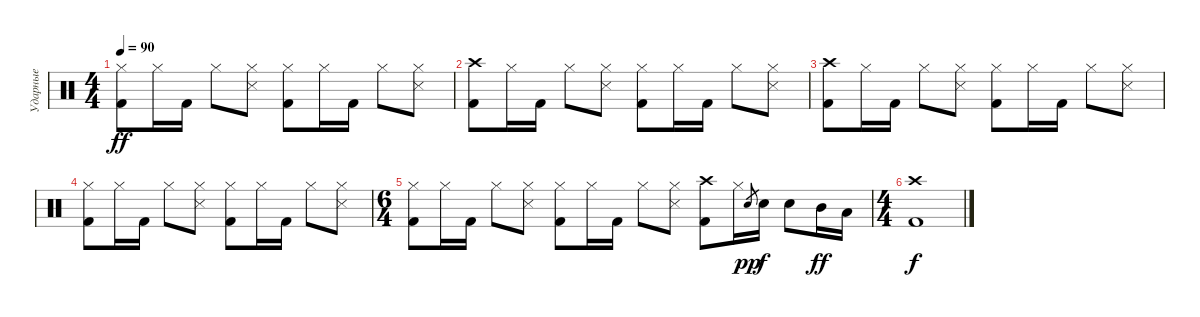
\track ("Ударные" "Ударные") {instrument percussion}
\staff {score}
\articulation defaults
\ts (4 4)
\tempo 90
\clef neutral
\ks c
("Hi-Hat (closed)" "Kick (hit) 2").8{dy ff} "Hi-Hat (closed)".16 "Kick (hit) 2".16 "Hi-Hat (closed)".8 ("Hi-Hat (closed)" "Snare (side stick) 3").8 ("Hi-Hat (closed)" "Kick (hit) 2").8 "Hi-Hat (closed)".16 "Kick (hit) 2".16 "Hi-Hat (closed)".8 ("Hi-Hat (closed)" "Snare (side stick) 3").8 |
("Crash high (hit)" "Kick (hit) 2").8 "Hi-Hat (closed)".16 "Kick (hit) 2".16 "Hi-Hat (closed)".8 ("Hi-Hat (closed)" "Snare (side stick) 3").8 ("Hi-Hat (closed)" "Kick (hit) 2").8 "Hi-Hat (closed)".16 "Kick (hit) 2".16 "Hi-Hat (closed)".8 ("Hi-Hat (closed)" "Snare (side stick) 3").8 |
("Crash high (hit)" "Kick (hit) 2").8 "Hi-Hat (closed)".16 "Kick (hit) 2".16 "Hi-Hat (closed)".8 ("Hi-Hat (closed)" "Snare (side stick) 3").8 ("Hi-Hat (closed)" "Kick (hit) 2").8 "Hi-Hat (closed)".16 "Kick (hit) 2".16 "Hi-Hat (closed)".8 ("Hi-Hat (closed)" "Snare (side stick) 3").8 |
("Hi-Hat (closed)" "Kick (hit) 2").8 "Hi-Hat (closed)".16 "Kick (hit) 2".16 "Hi-Hat (closed)".8 ("Hi-Hat (closed)" "Snare (side stick) 3").8 ("Hi-Hat (closed)" "Kick (hit) 2").8 "Hi-Hat (closed)".16 "Kick (hit) 2".16 "Hi-Hat (closed)".8 ("Hi-Hat (closed)" "Snare (side stick) 3").8 |
\ts (6 4)
("Hi-Hat (closed)" "Kick (hit) 2").8 "Hi-Hat (closed)".16 "Kick (hit) 2".16 "Hi-Hat (closed)".8 ("Hi-Hat (closed)" "Snare (side stick) 3").8 ("Hi-Hat (closed)" "Kick (hit) 2").8 "Hi-Hat (closed)".16 "Kick (hit) 2".16 "Hi-Hat (closed)".8 ("Hi-Hat (closed)" "Snare (side stick) 3").8 ("Kick (hit) 2" "Crash high (hit)").8 "Hi-Hat (closed)".16 "Electric Snare (hit)".8{gr dy pp} "Electric Snare (hit)".16{dy f} "Electric Snare (hit)".8 "Mid Tom (hit)".16{dy ff} "Low Tom (hit)".16 |
\ts (4 4)
("Kick (hit) 2" "Crash high (hit)").1{dy f}
